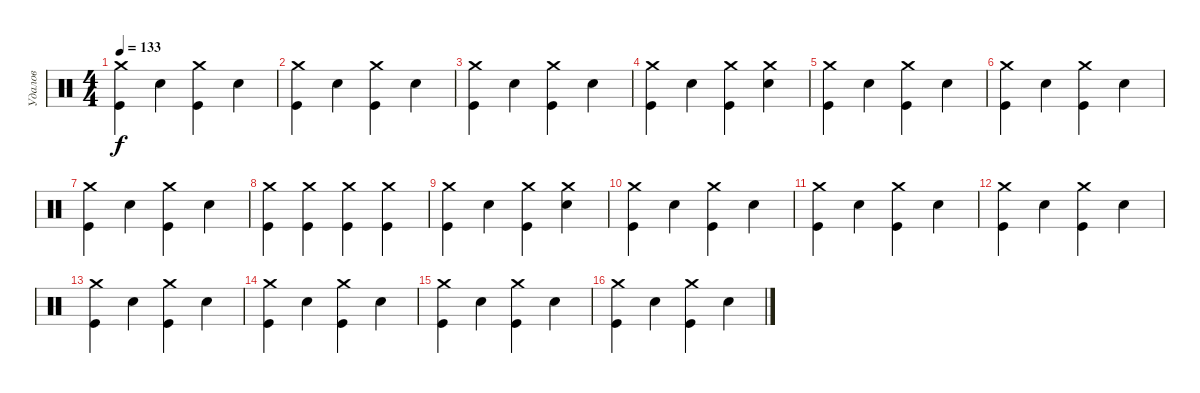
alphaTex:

\track ("Удалов" "Удалов") {instrument percussion}
\staff {score}
\articulation defaults
\ts (4 4)
\tempo 133
\clef neutral
\ks c
("Crash medium (hit)" "Kick (hit)").4{dy f} "Electric Snare (hit)".4 ("Crash medium (hit)" "Kick (hit)").4 "Electric Snare (hit)".4 |
("Crash medium (hit)" "Kick (hit)").4 "Electric Snare (hit)".4 ("Crash medium (hit)" "Kick (hit)").4 "Electric Snare (hit)".4 |
("Crash medium (hit)" "Kick (hit)").4 "Electric Snare (hit)".4 ("Crash medium (hit)" "Kick (hit)").4 "Electric Snare (hit)".4 |
("Crash medium (hit)" "Kick (hit)").4 "Electric Snare (hit)".4 ("Crash medium (hit)" "Kick (hit)").4 ("Crash medium (hit)" "Electric Snare (hit)").4 |
("Crash medium (hit)" "Kick (hit)").4 "Electric Snare (hit)".4 ("Crash medium (hit)" "Kick (hit)").4 "Electric Snare (hit)".4 |
("Crash medium (hit)" "Kick (hit)").4 "Electric Snare (hit)".4 ("Crash medium (hit)" "Kick (hit)").4 "Electric Snare (hit)".4 |
("Crash medium (hit)" "Kick (hit)").4 "Electric Snare (hit)".4 ("Crash medium (hit)" "Kick (hit)").4 "Electric Snare (hit)".4 |
("Crash medium (hit)" "Kick (hit)").4 ("Crash medium (hit)" "Kick (hit)").4 ("Crash medium (hit)" "Kick (hit)").4 ("Crash medium (hit)" "Kick (hit)").4 |
("Crash medium (hit)" "Kick (hit)").4 "Electric Snare (hit)".4 ("Crash medium (hit)" "Kick (hit)").4 ("Crash medium (hit)" "Electric Snare (hit)").4 |
("Crash medium (hit)" "Kick (hit)").4 "Electric Snare (hit)".4 ("Crash medium (hit)" "Kick (hit)").4 "Electric Snare (hit)".4 |
("Crash medium (hit)" "Kick (hit)").4 "Electric Snare (hit)".4 ("Crash medium (hit)" "Kick (hit)").4 "Electric Snare (hit)".4 |
("Crash medium (hit)" "Kick (hit)").4 "Electric Snare (hit)".4 ("Crash medium (hit)" "Kick (hit)").4 "Electric Snare (hit)".4 |
("Crash medium (hit)" "Kick (hit)").4 "Electric Snare (hit)".4 ("Crash medium (hit)" "Kick (hit)").4 "Electric Snare (hit)".4 |
("Crash medium (hit)" "Kick (hit)").4 "Electric Snare (hit)".4 ("Crash medium (hit)" "Kick (hit)").4 "Electric Snare (hit)".4 |
("Crash medium (hit)" "Kick (hit)").4 "Electric Snare (hit)".4 ("Crash medium (hit)" "Kick (hit)").4 "Electric Snare (hit)".4 |
("Crash medium (hit)" "Kick (hit)").4 "Electric Snare (hit)".4 ("Crash medium (hit)" "Kick (hit)").4 "Electric Snare (hit)".4
